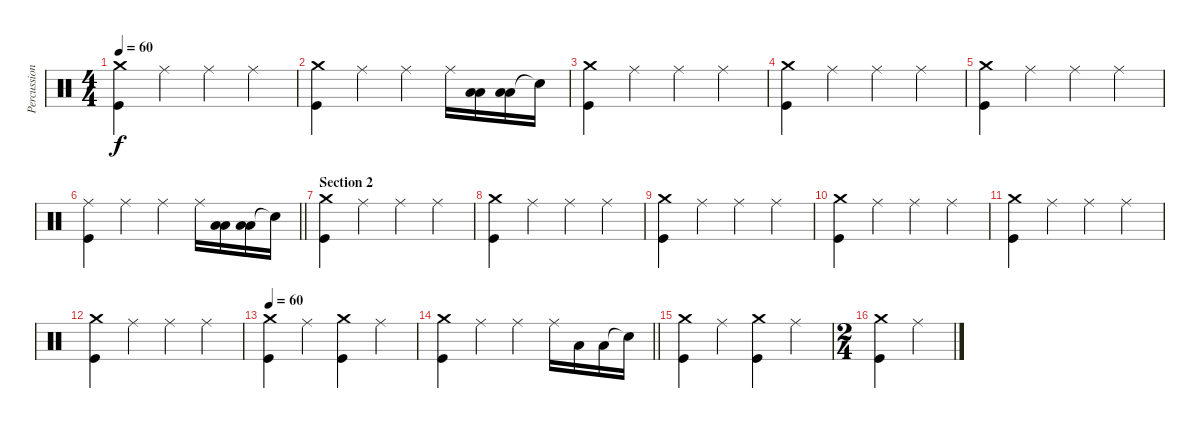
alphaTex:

\track ("Percussions" "Percussion") {instrument percussion}
\staff {score}
\articulation defaults
\ts (4 4)
\tempo 60
\clef neutral
\ks c
("Crash medium (hit)" "Kick (hit)").4{dy f} "Ride (middle)".4 "Ride (middle)".4 "Ride (middle)".4 |
("Crash medium (hit)" "Kick (hit)").4 "Ride (middle)".4 "Ride (middle)".4 "Ride (middle)".16 ("Low Tom (hit)" "Low Tom (hit)").16{volume 12} ("Low Tom (hit)" "Low Tom (hit)").16 "Snare (hit)"{t}.16 |
("Crash medium (hit)" "Kick (hit)").4{volume 16} "Ride (middle)".4 "Ride (middle)".4 "Ride (middle)".4 |
("Crash medium (hit)" "Kick (hit)").4 "Ride (middle)".4 "Ride (middle)".4 "Ride (middle)".4 |
("Crash medium (hit)" "Kick (hit)").4 "Ride (middle)".4 "Ride (middle)".4 "Ride (middle)".4 |
\barLineRight lightlight
("Ride (middle)" "Kick (hit)").4 "Ride (middle)".4 "Ride (middle)".4 "Ride (middle)".16 ("Low Tom (hit)" "Low Tom (hit)").16{volume 12} ("Low Tom (hit)" "Low Tom (hit)").16 "Snare (hit)"{t}.16 |
\section ("" "Section 2")
("Crash medium (hit)" "Kick (hit)").4{volume 16} "Ride (middle)".4 "Ride (middle)".4 "Ride (middle)".4 |
("Crash medium (hit)" "Kick (hit)").4 "Ride (middle)".4 "Ride (middle)".4 "Ride (middle)".4 |
("Crash medium (hit)" "Kick (hit)").4 "Ride (middle)".4 "Ride (middle)".4 "Ride (middle)".4 |
("Crash medium (hit)" "Kick (hit)").4 "Ride (middle)".4 "Ride (middle)".4 "Ride (middle)".4 |
("Crash medium (hit)" "Kick (hit)").4 "Ride (middle)".4 "Ride (middle)".4 "Ride (middle)".4 |
("Crash medium (hit)" "Kick (hit)").4 "Ride (middle)".4 "Ride (middle)".4 "Ride (middle)".4 |
\tempo 60
("Crash medium (hit)" "Kick (hit)").4 "Ride (middle)".4 ("Crash medium (hit)" "Kick (hit)").4 "Ride (middle)".4 |
\barLineRight lightlight
("Crash medium (hit)" "Kick (hit)").4 "Ride (middle)".4 "Ride (middle)".4 "Ride (middle)".16 "Low Tom (hit)".16{volume 12} "Low Tom (hit)".16 "Snare (hit)"{t}.16 |
("Crash medium (hit)" "Kick (hit)").4{volume 16} "Ride (middle)".4 ("Crash medium (hit)" "Kick (hit)").4 "Ride (middle)".4 |
\ts (2 4)
("Crash medium (hit)" "Kick (hit)").4 "Ride (middle)".4
